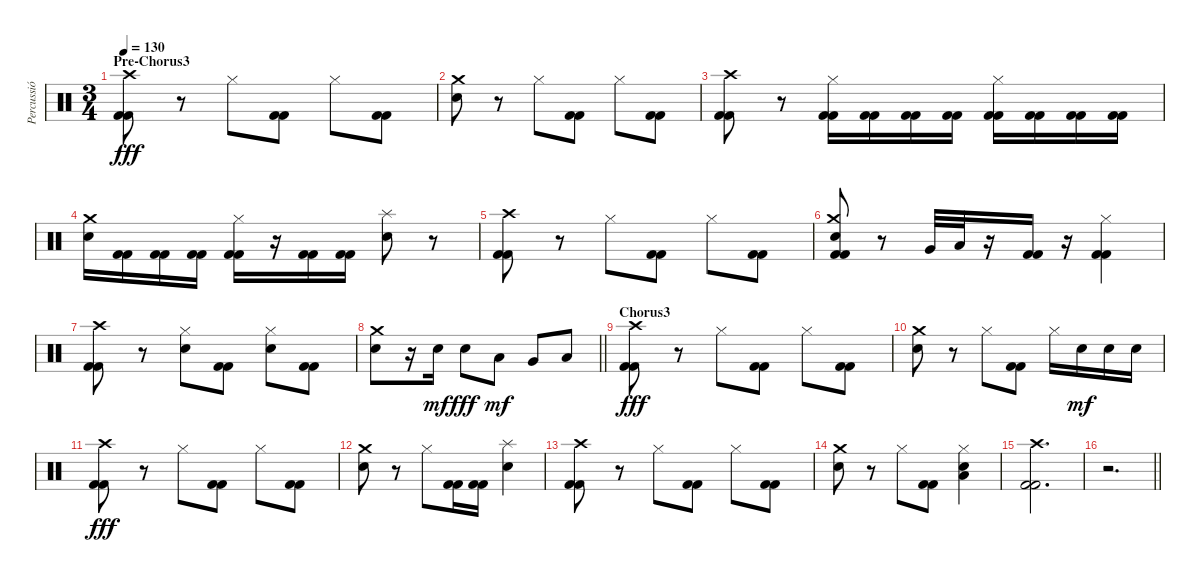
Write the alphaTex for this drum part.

\track ("Percussió" "Percussió") {instrument percussion}
\staff {score}
\articulation defaults
\ts (3 4)
\section ("" "Pre-Chorus3")
\tempo 130
\clef neutral
\ks c
("Crash high (hit)" "Kick (hit) 2" "Kick (hit) 2").8{dy fff} r.8 "Hi-Hat (closed)".8 ("Kick (hit) 2" "Kick (hit) 2").8 "Hi-Hat (closed)".8 ("Kick (hit) 2" "Kick (hit) 2").8 |
("Crash medium (hit)" "Snare (hit) 2").8 r.8 "Hi-Hat (closed)".8 ("Kick (hit) 2" "Kick (hit) 2").8 "Hi-Hat (closed)".8 ("Kick (hit) 2" "Kick (hit) 2").8 |
("Crash high (hit)" "Kick (hit) 2" "Kick (hit) 2").8 r.8 ("Hi-Hat (closed)" "Kick (hit) 2" "Kick (hit) 2").16 ("Kick (hit) 2" "Kick (hit) 2").16 ("Kick (hit) 2" "Kick (hit) 2").16 ("Kick (hit) 2" "Kick (hit) 2").16 ("Hi-Hat (closed)" "Kick (hit) 2" "Kick (hit) 2").16 ("Kick (hit) 2" "Kick (hit) 2").16 ("Kick (hit) 2" "Kick (hit) 2").16 ("Kick (hit) 2" "Kick (hit) 2").16 |
("Crash medium (hit)" "Snare (hit) 2").16 ("Kick (hit) 2" "Kick (hit) 2").16 ("Kick (hit) 2" "Kick (hit) 2").16 ("Kick (hit) 2" "Kick (hit) 2").16 ("Hi-Hat (closed)" "Kick (hit) 2" "Kick (hit) 2").16 r.16 ("Kick (hit) 2" "Kick (hit) 2").16 ("Kick (hit) 2" "Kick (hit) 2").16 ("Splash (hit)" "Snare (hit) 2").8 r.8 |
("Crash high (hit)" "Kick (hit) 2" "Kick (hit) 2").8 r.8 "Hi-Hat (closed)".8 ("Kick (hit) 2" "Kick (hit) 2").8 "Hi-Hat (closed)".8 ("Kick (hit) 2" "Kick (hit) 2").8 |
("Crash medium (hit)" "Snare (hit) 2" "Kick (hit) 2" "Kick (hit) 2").8 r.8 "Very Low Tom (hit)".32 "Low Floor Tom (hit)".32 r.16 ("Kick (hit) 2" "Kick (hit) 2").16 r.16 ("Hi-Hat (closed)" "Kick (hit) 2" "Kick (hit) 2").4 |
("Crash high (hit)" "Kick (hit) 2" "Kick (hit) 2").8 r.8 ("Hi-Hat (closed)" "Snare (hit) 2").8 ("Kick (hit) 2" "Kick (hit) 2").8 ("Hi-Hat (closed)" "Snare (hit) 2").8 ("Kick (hit) 2" "Kick (hit) 2").8 |
\barLineRight lightlight
("Crash medium (hit)" "Snare (hit) 2").8 r.16 "Snare (hit) 2".16{dy mf} "Snare (hit) 2".8{dy fff} "Low Tom (hit)".8{dy mf} "Very Low Tom (hit)".8 "Low Floor Tom (hit)".8 |
\section ("" "Chorus3")
("Crash high (hit)" "Kick (hit) 2" "Kick (hit) 2").8{dy fff} r.8 "Hi-Hat (closed)".8 ("Kick (hit) 2" "Kick (hit) 2").8 "Hi-Hat (closed)".8 ("Kick (hit) 2" "Kick (hit) 2").8 |
("Crash medium (hit)" "Snare (hit) 2").8 r.8 "Hi-Hat (closed)".8 ("Kick (hit) 2" "Kick (hit) 2").8 "Hi-Hat (closed)".16 "Snare (hit) 2".16{dy mf} "Snare (hit) 2".16 "Snare (hit) 2".16 |
("Crash high (hit)" "Kick (hit) 2" "Kick (hit) 2").8{dy fff} r.8 "Hi-Hat (closed)".8 ("Kick (hit) 2" "Kick (hit) 2").8 "Hi-Hat (closed)".8 ("Kick (hit) 2" "Kick (hit) 2").8 |
("Crash medium (hit)" "Snare (hit) 2").8 r.8 "Hi-Hat (closed)".8 ("Kick (hit) 2" "Kick (hit) 2").16 ("Kick (hit) 2" "Kick (hit) 2").16 ("Splash (hit)" "Snare (hit) 2").4 |
("Crash high (hit)" "Kick (hit) 2" "Kick (hit) 2").8 r.8 "Hi-Hat (closed)".8 ("Kick (hit) 2" "Kick (hit) 2").8 "Hi-Hat (closed)".8 ("Kick (hit) 2" "Kick (hit) 2").8 |
("Crash medium (hit)" "Snare (hit) 2").8 r.8 "Hi-Hat (closed)".8 ("Kick (hit) 2" "Kick (hit) 2").8 ("Hi-Hat (closed)" "Low Floor Tom (hit)" "Snare (hit) 2").4 |
("Crash high (hit)" "Kick (hit) 2" "Kick (hit) 2").2{d} |
\barLineRight lightlight
r.2{d}
